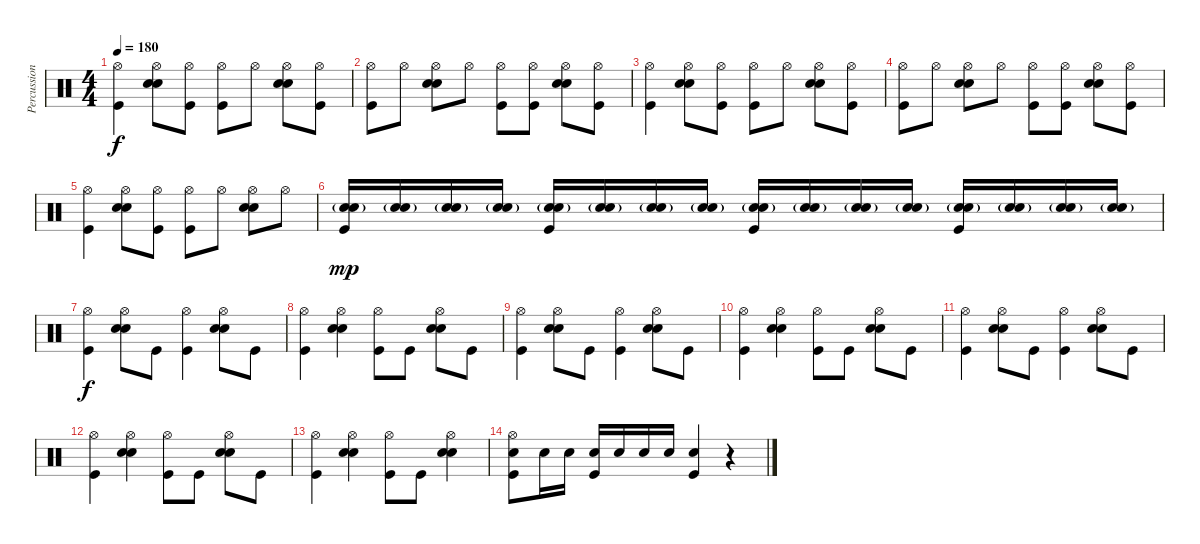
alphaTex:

\track ("Percussion" "Percussion") {instrument percussion}
\staff {score}
\articulation defaults
\ts (4 4)
\tempo 180
\clef neutral
\ks c
("Hi-Hat (open)" "Kick (hit)").4{dy f} ("Hi-Hat (open)" "Snare (hit) 2" "Electric Snare (hit)").8 ("Hi-Hat (open)" "Kick (hit)").8 ("Hi-Hat (open)" "Kick (hit)").8 "Hi-Hat (open)".8 ("Hi-Hat (open)" "Snare (hit) 2" "Electric Snare (hit)").8 ("Hi-Hat (open)" "Kick (hit)").8 |
("Hi-Hat (open)" "Kick (hit)").8 "Hi-Hat (open)".8 ("Hi-Hat (open)" "Snare (hit) 2" "Electric Snare (hit)").8 "Hi-Hat (open)".8 ("Hi-Hat (open)" "Kick (hit)").8 ("Hi-Hat (open)" "Kick (hit)").8 ("Hi-Hat (open)" "Snare (hit) 2" "Electric Snare (hit)").8 ("Hi-Hat (open)" "Kick (hit)").8 |
("Hi-Hat (open)" "Kick (hit)").4 ("Hi-Hat (open)" "Snare (hit) 2" "Electric Snare (hit)").8 ("Hi-Hat (open)" "Kick (hit)").8 ("Hi-Hat (open)" "Kick (hit)").8 "Hi-Hat (open)".8 ("Hi-Hat (open)" "Snare (hit) 2" "Electric Snare (hit)").8 ("Hi-Hat (open)" "Kick (hit)").8 |
("Hi-Hat (open)" "Kick (hit)").8 "Hi-Hat (open)".8 ("Hi-Hat (open)" "Snare (hit) 2" "Electric Snare (hit)").8 "Hi-Hat (open)".8 ("Hi-Hat (open)" "Kick (hit)").8 ("Hi-Hat (open)" "Kick (hit)").8 ("Hi-Hat (open)" "Snare (hit) 2" "Electric Snare (hit)").8 ("Hi-Hat (open)" "Kick (hit)").8 |
("Hi-Hat (open)" "Kick (hit)").4 ("Hi-Hat (open)" "Snare (hit) 2" "Electric Snare (hit)").8 ("Hi-Hat (open)" "Kick (hit)").8 ("Hi-Hat (open)" "Kick (hit)").8 "Hi-Hat (open)".8 ("Hi-Hat (open)" "Snare (hit) 2" "Electric Snare (hit)").8 "Hi-Hat (open)".8 |
("Snare (hit) 2" "Electric Snare (hit)"{g} "Kick (hit)").16{dy mp} ("Snare (hit) 2" "Electric Snare (hit)"{g}).16 ("Snare (hit) 2" "Electric Snare (hit)"{g}).16 ("Snare (hit) 2" "Electric Snare (hit)"{g}).16 ("Snare (hit) 2" "Electric Snare (hit)"{g} "Kick (hit)").16 ("Snare (hit) 2" "Electric Snare (hit)"{g}).16 ("Snare (hit) 2" "Electric Snare (hit)"{g}).16 ("Snare (hit) 2" "Electric Snare (hit)"{g}).16 ("Snare (hit) 2" "Electric Snare (hit)"{g} "Kick (hit)").16 ("Snare (hit) 2" "Electric Snare (hit)"{g}).16 ("Snare (hit) 2" "Electric Snare (hit)"{g}).16 ("Snare (hit) 2" "Electric Snare (hit)"{g}).16 ("Snare (hit) 2" "Electric Snare (hit)"{g} "Kick (hit)").16 ("Snare (hit) 2" "Electric Snare (hit)"{g}).16 ("Snare (hit) 2" "Electric Snare (hit)"{g}).16 ("Snare (hit) 2" "Electric Snare (hit)"{g}).16 |
("Hi-Hat (open)" "Kick (hit)").4{dy f} ("Hi-Hat (open)" "Snare (hit) 2" "Electric Snare (hit)").8 "Kick (hit)".8 ("Hi-Hat (open)" "Kick (hit)").4 ("Hi-Hat (open)" "Snare (hit) 2" "Electric Snare (hit)").8 "Kick (hit)".8 |
("Hi-Hat (open)" "Kick (hit)").4 ("Hi-Hat (open)" "Snare (hit) 2" "Electric Snare (hit)").4 ("Hi-Hat (open)" "Kick (hit)").8 "Kick (hit)".8 ("Hi-Hat (open)" "Snare (hit) 2" "Electric Snare (hit)").8 "Kick (hit)".8 |
("Hi-Hat (open)" "Kick (hit)").4 ("Hi-Hat (open)" "Snare (hit) 2" "Electric Snare (hit)").8 "Kick (hit)".8 ("Hi-Hat (open)" "Kick (hit)").4 ("Hi-Hat (open)" "Snare (hit) 2" "Electric Snare (hit)").8 "Kick (hit)".8 |
("Hi-Hat (open)" "Kick (hit)").4 ("Hi-Hat (open)" "Snare (hit) 2" "Electric Snare (hit)").4 ("Hi-Hat (open)" "Kick (hit)").8 "Kick (hit)".8 ("Hi-Hat (open)" "Snare (hit) 2" "Electric Snare (hit)").8 "Kick (hit)".8 |
("Hi-Hat (open)" "Kick (hit)").4 ("Hi-Hat (open)" "Snare (hit) 2" "Electric Snare (hit)").8 "Kick (hit)".8 ("Hi-Hat (open)" "Kick (hit)").4 ("Hi-Hat (open)" "Snare (hit) 2" "Electric Snare (hit)").8 "Kick (hit)".8 |
("Hi-Hat (open)" "Kick (hit)").4 ("Hi-Hat (open)" "Snare (hit) 2" "Electric Snare (hit)").4 ("Hi-Hat (open)" "Kick (hit)").8 "Kick (hit)".8 ("Hi-Hat (open)" "Snare (hit) 2" "Electric Snare (hit)").8 "Kick (hit)".8 |
("Hi-Hat (open)" "Kick (hit)").4 ("Hi-Hat (open)" "Snare (hit) 2" "Electric Snare (hit)").4 ("Hi-Hat (open)" "Kick (hit)").8 "Kick (hit)".8 ("Hi-Hat (open)" "Snare (hit) 2" "Electric Snare (hit)").4 |
("Hi-Hat (open)" "Snare (hit) 2" "Kick (hit)").8 "Snare (hit) 2".16 "Snare (hit) 2".16 ("Snare (hit) 2" "Kick (hit)").16 "Snare (hit) 2".16 "Snare (hit) 2".16 "Snare (hit) 2".16 ("Snare (hit) 2" "Kick (hit)").4 r.4
